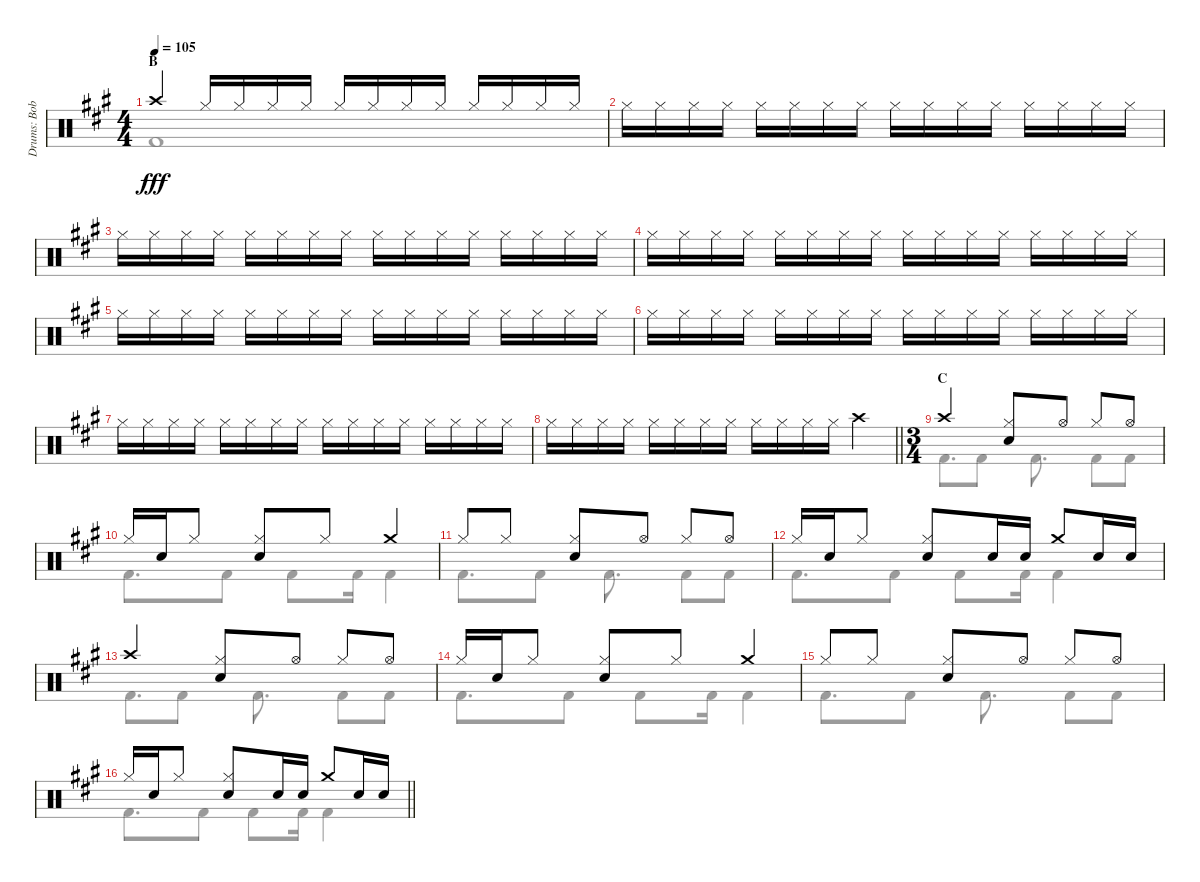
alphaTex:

\track ("Drums: Bobby" "Drums: Bob") {instrument percussion}
\staff {score}
\articulation defaults
\voice
\ts (4 4)
\section ("" "B")
\tempo 105
\clef neutral
\ks a "Crash high (hit)".4{dy fff} "Hi-Hat (closed)".16 "Hi-Hat (closed)".16 "Hi-Hat (closed)".16 "Hi-Hat (closed)".16 "Hi-Hat (closed)".16 "Hi-Hat (closed)".16 "Hi-Hat (closed)".16 "Hi-Hat (closed)".16 "Hi-Hat (closed)".16 "Hi-Hat (closed)".16 "Hi-Hat (closed)".16 "Hi-Hat (closed)".16
|
"Hi-Hat (closed)".16 "Hi-Hat (closed)".16 "Hi-Hat (closed)".16 "Hi-Hat (closed)".16 "Hi-Hat (closed)".16 "Hi-Hat (closed)".16 "Hi-Hat (closed)".16 "Hi-Hat (closed)".16 "Hi-Hat (closed)".16 "Hi-Hat (closed)".16 "Hi-Hat (closed)".16 "Hi-Hat (closed)".16 "Hi-Hat (closed)".16 "Hi-Hat (closed)".16 "Hi-Hat (closed)".16 "Hi-Hat (closed)".16 |
"Hi-Hat (closed)".16 "Hi-Hat (closed)".16 "Hi-Hat (closed)".16 "Hi-Hat (closed)".16 "Hi-Hat (closed)".16 "Hi-Hat (closed)".16 "Hi-Hat (closed)".16 "Hi-Hat (closed)".16 "Hi-Hat (closed)".16 "Hi-Hat (closed)".16 "Hi-Hat (closed)".16 "Hi-Hat (closed)".16 "Hi-Hat (closed)".16 "Hi-Hat (closed)".16 "Hi-Hat (closed)".16 "Hi-Hat (closed)".16 |
"Hi-Hat (closed)".16 "Hi-Hat (closed)".16 "Hi-Hat (closed)".16 "Hi-Hat (closed)".16 "Hi-Hat (closed)".16 "Hi-Hat (closed)".16 "Hi-Hat (closed)".16 "Hi-Hat (closed)".16 "Hi-Hat (closed)".16 "Hi-Hat (closed)".16 "Hi-Hat (closed)".16 "Hi-Hat (closed)".16 "Hi-Hat (closed)".16 "Hi-Hat (closed)".16 "Hi-Hat (closed)".16 "Hi-Hat (closed)".16 |
"Hi-Hat (closed)".16 "Hi-Hat (closed)".16 "Hi-Hat (closed)".16 "Hi-Hat (closed)".16 "Hi-Hat (closed)".16 "Hi-Hat (closed)".16 "Hi-Hat (closed)".16 "Hi-Hat (closed)".16 "Hi-Hat (closed)".16 "Hi-Hat (closed)".16 "Hi-Hat (closed)".16 "Hi-Hat (closed)".16 "Hi-Hat (closed)".16 "Hi-Hat (closed)".16 "Hi-Hat (closed)".16 "Hi-Hat (closed)".16 |
"Hi-Hat (closed)".16 "Hi-Hat (closed)".16 "Hi-Hat (closed)".16 "Hi-Hat (closed)".16 "Hi-Hat (closed)".16 "Hi-Hat (closed)".16 "Hi-Hat (closed)".16 "Hi-Hat (closed)".16 "Hi-Hat (closed)".16 "Hi-Hat (closed)".16 "Hi-Hat (closed)".16 "Hi-Hat (closed)".16 "Hi-Hat (closed)".16 "Hi-Hat (closed)".16 "Hi-Hat (closed)".16 "Hi-Hat (closed)".16 |
"Hi-Hat (closed)".16 "Hi-Hat (closed)".16 "Hi-Hat (closed)".16 "Hi-Hat (closed)".16 "Hi-Hat (closed)".16 "Hi-Hat (closed)".16 "Hi-Hat (closed)".16 "Hi-Hat (closed)".16 "Hi-Hat (closed)".16 "Hi-Hat (closed)".16 "Hi-Hat (closed)".16 "Hi-Hat (closed)".16 "Hi-Hat (closed)".16 "Hi-Hat (closed)".16 "Hi-Hat (closed)".16 "Hi-Hat (closed)".16 |
\barLineRight lightlight "Hi-Hat (closed)".16 "Hi-Hat (closed)".16 "Hi-Hat (closed)".16 "Hi-Hat (closed)".16 "Hi-Hat (closed)".16 "Hi-Hat (closed)".16 "Hi-Hat (closed)".16 "Hi-Hat (closed)".16 "Hi-Hat (closed)".16 "Hi-Hat (closed)".16 "Hi-Hat (closed)".16 "Hi-Hat (closed)".16 "Crash high (hit)".4
|
\ts (3 4)
\section ("" "C")
"Crash high (hit)".4 ("Hi-Hat (closed)" "Snare (hit) 2").8 "Hi-Hat (open)".8 "Hi-Hat (closed)".8 "Hi-Hat (open)".8 |
"Hi-Hat (closed)".16 "Snare (hit) 2".16 "Hi-Hat (closed)".8 ("Hi-Hat (closed)" "Snare (hit) 2").8 "Hi-Hat (closed)".8 "Crash medium (hit)".4 |
"Hi-Hat (closed)".8 "Hi-Hat (closed)".8 ("Hi-Hat (closed)" "Snare (hit) 2").8 "Hi-Hat (open)".8 "Hi-Hat (closed)".8 "Hi-Hat (open)".8 |
"Hi-Hat (closed)".16 "Snare (hit) 2".16 "Hi-Hat (closed)".8 ("Hi-Hat (closed)" "Snare (hit) 2").8 "Snare (hit) 2".16 "Snare (hit) 2".16 "Crash medium (hit)".8 "Snare (hit) 2".16 "Snare (hit) 2".16 |
"Crash high (hit)".4 ("Hi-Hat (closed)" "Snare (hit) 2").8 "Hi-Hat (open)".8 "Hi-Hat (closed)".8 "Hi-Hat (open)".8 |
"Hi-Hat (closed)".16 "Snare (hit) 2".16 "Hi-Hat (closed)".8 ("Hi-Hat (closed)" "Snare (hit) 2").8 "Hi-Hat (closed)".8 "Crash medium (hit)".4 |
"Hi-Hat (closed)".8 "Hi-Hat (closed)".8 ("Hi-Hat (closed)" "Snare (hit) 2").8 "Hi-Hat (open)".8 "Hi-Hat (closed)".8 "Hi-Hat (open)".8 |
\barLineRight lightlight "Hi-Hat (closed)".16 "Snare (hit) 2".16 "Hi-Hat (closed)".8
("Hi-Hat (closed)" "Snare (hit) 2").8 "Snare (hit) 2".16 "Snare (hit) 2".16 "Crash medium (hit)".8 "Snare (hit) 2".16 "Snare (hit) 2".16
\voice
\clef neutral
\ottava regular
\simile none
\ks a "Kick (hit) 2".1{dy fff}
|
|
|
|
|
|
|
\barLineRight lightlight
|
"Kick (hit) 2".8{d} "Kick (hit) 2".8 "Kick (hit) 2".8{d} "Kick (hit) 2".8 "Kick (hit) 2".8 |
"Kick (hit) 2".8{d} "Kick (hit) 2".8 "Kick (hit) 2".8 "Kick (hit) 2".16 "Kick (hit) 2".4 |
"Kick (hit) 2".8{d} "Kick (hit) 2".8 "Kick (hit) 2".8{d} "Kick (hit) 2".8 "Kick (hit) 2".8 |
"Kick (hit) 2".8{d} "Kick (hit) 2".8 "Kick (hit) 2".8 "Kick (hit) 2".16 "Kick (hit) 2".4 |
"Kick (hit) 2".8{d} "Kick (hit) 2".8 "Kick (hit) 2".8{d} "Kick (hit) 2".8 "Kick (hit) 2".8 |
"Kick (hit) 2".8{d} "Kick (hit) 2".8 "Kick (hit) 2".8 "Kick (hit) 2".16 "Kick (hit) 2".4 |
"Kick (hit) 2".8{d} "Kick (hit) 2".8 "Kick (hit) 2".8{d} "Kick (hit) 2".8 "Kick (hit) 2".8 |
\barLineRight lightlight "Kick (hit) 2".8{d} "Kick (hit) 2".8 "Kick (hit) 2".8 "Kick (hit) 2".16 "Kick (hit) 2".4
